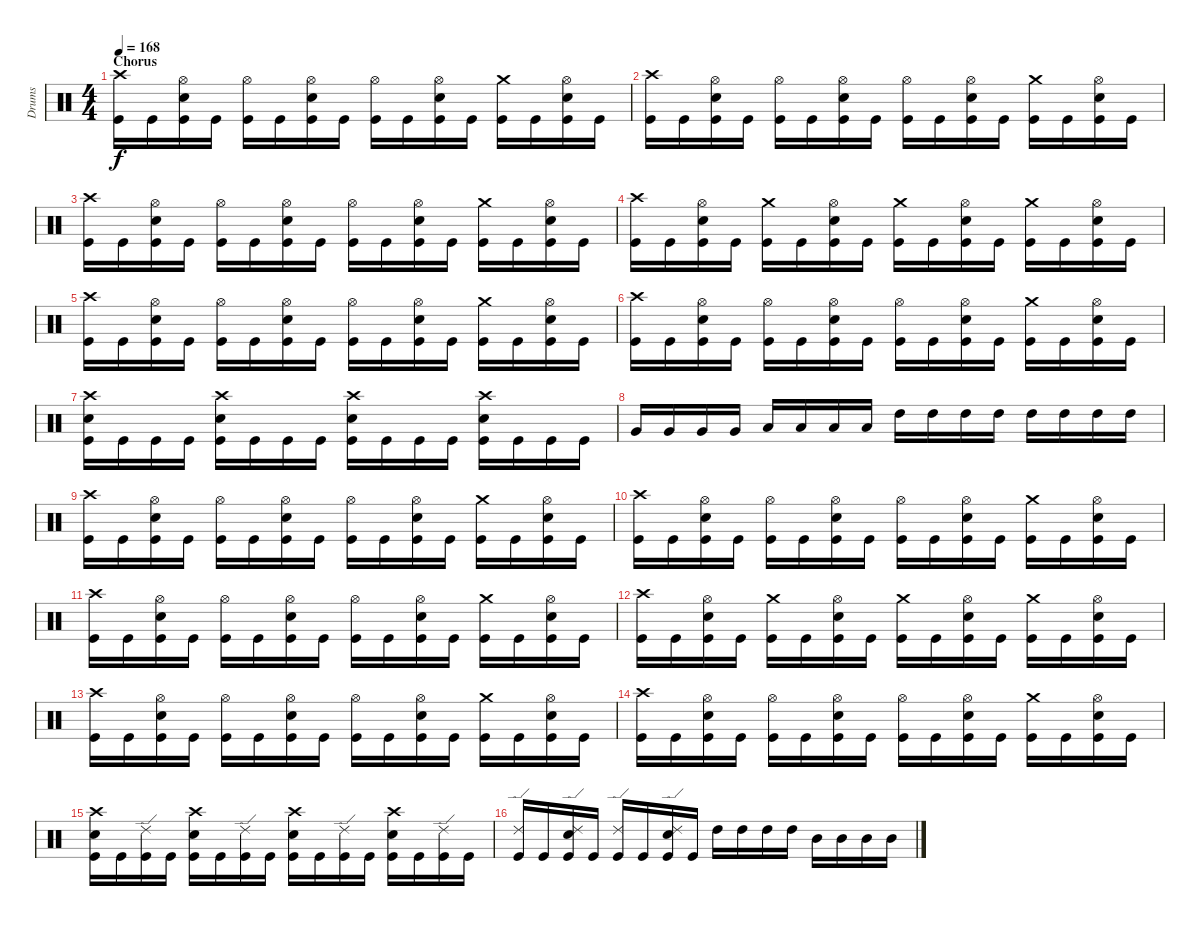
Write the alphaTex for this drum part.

\track ("Drums" "Drums") {instrument percussion}
\staff {score}
\articulation defaults
\ts (4 4)
\section ("" "Chorus")
\tempo 168
\clef neutral
\ks c
("Crash high (hit)" "Kick (hit)").16{dy f} "Kick (hit)".16 ("Hi-Hat (open)" "Electric Snare (hit)" "Kick (hit)").16 "Kick (hit)".16 ("Hi-Hat (open)" "Kick (hit)").16 "Kick (hit)".16 ("Hi-Hat (open)" "Electric Snare (hit)" "Kick (hit)").16 "Kick (hit)".16 ("Hi-Hat (open)" "Kick (hit)").16 "Kick (hit)".16 ("Hi-Hat (open)" "Electric Snare (hit)" "Kick (hit)").16 "Kick (hit)".16 ("Crash medium (hit)" "Kick (hit)").16 "Kick (hit)".16 ("Hi-Hat (open)" "Electric Snare (hit)" "Kick (hit)").16 "Kick (hit)".16 |
("Crash high (hit)" "Kick (hit)").16 "Kick (hit)".16 ("Hi-Hat (open)" "Electric Snare (hit)" "Kick (hit)").16 "Kick (hit)".16 ("Hi-Hat (open)" "Kick (hit)").16 "Kick (hit)".16 ("Hi-Hat (open)" "Electric Snare (hit)" "Kick (hit)").16 "Kick (hit)".16 ("Hi-Hat (open)" "Kick (hit)").16 "Kick (hit)".16 ("Hi-Hat (open)" "Electric Snare (hit)" "Kick (hit)").16 "Kick (hit)".16 ("Crash medium (hit)" "Kick (hit)").16 "Kick (hit)".16 ("Hi-Hat (open)" "Electric Snare (hit)" "Kick (hit)").16 "Kick (hit)".16 |
("Crash high (hit)" "Kick (hit)").16 "Kick (hit)".16 ("Hi-Hat (open)" "Electric Snare (hit)" "Kick (hit)").16 "Kick (hit)".16 ("Hi-Hat (open)" "Kick (hit)").16 "Kick (hit)".16 ("Hi-Hat (open)" "Electric Snare (hit)" "Kick (hit)").16 "Kick (hit)".16 ("Hi-Hat (open)" "Kick (hit)").16 "Kick (hit)".16 ("Hi-Hat (open)" "Electric Snare (hit)" "Kick (hit)").16 "Kick (hit)".16 ("Crash medium (hit)" "Kick (hit)").16 "Kick (hit)".16 ("Hi-Hat (open)" "Electric Snare (hit)" "Kick (hit)").16 "Kick (hit)".16 |
("Crash high (hit)" "Kick (hit)").16 "Kick (hit)".16 ("Hi-Hat (open)" "Electric Snare (hit)" "Kick (hit)").16 "Kick (hit)".16 ("Crash medium (hit)" "Kick (hit)").16 "Kick (hit)".16 ("Hi-Hat (open)" "Electric Snare (hit)" "Kick (hit)").16 "Kick (hit)".16 ("Crash medium (hit)" "Kick (hit)").16 "Kick (hit)".16 ("Hi-Hat (open)" "Electric Snare (hit)" "Kick (hit)").16 "Kick (hit)".16 ("Crash medium (hit)" "Kick (hit)").16 "Kick (hit)".16 ("Hi-Hat (open)" "Electric Snare (hit)" "Kick (hit)").16 "Kick (hit)".16 |
("Crash high (hit)" "Kick (hit)").16 "Kick (hit)".16 ("Hi-Hat (open)" "Electric Snare (hit)" "Kick (hit)").16 "Kick (hit)".16 ("Hi-Hat (open)" "Kick (hit)").16 "Kick (hit)".16 ("Hi-Hat (open)" "Electric Snare (hit)" "Kick (hit)").16 "Kick (hit)".16 ("Hi-Hat (open)" "Kick (hit)").16 "Kick (hit)".16 ("Hi-Hat (open)" "Electric Snare (hit)" "Kick (hit)").16 "Kick (hit)".16 ("Crash medium (hit)" "Kick (hit)").16 "Kick (hit)".16 ("Hi-Hat (open)" "Electric Snare (hit)" "Kick (hit)").16 "Kick (hit)".16 |
("Crash high (hit)" "Kick (hit)").16 "Kick (hit)".16 ("Hi-Hat (open)" "Electric Snare (hit)" "Kick (hit)").16 "Kick (hit)".16 ("Hi-Hat (open)" "Kick (hit)").16 "Kick (hit)".16 ("Hi-Hat (open)" "Electric Snare (hit)" "Kick (hit)").16 "Kick (hit)".16 ("Hi-Hat (open)" "Kick (hit)").16 "Kick (hit)".16 ("Hi-Hat (open)" "Electric Snare (hit)" "Kick (hit)").16 "Kick (hit)".16 ("Crash medium (hit)" "Kick (hit)").16 "Kick (hit)".16 ("Hi-Hat (open)" "Electric Snare (hit)" "Kick (hit)").16 "Kick (hit)".16 |
("Crash high (hit)" "Snare (hit) 2" "Kick (hit)").16 "Kick (hit)".16 "Kick (hit)".16 "Kick (hit)".16 ("Crash high (hit)" "Snare (hit) 2" "Kick (hit)").16 "Kick (hit)".16 "Kick (hit)".16 "Kick (hit)".16 ("Crash high (hit)" "Snare (hit) 2" "Kick (hit)").16 "Kick (hit)".16 "Kick (hit)".16 "Kick (hit)".16 ("Crash high (hit)" "Snare (hit) 2" "Kick (hit)").16 "Kick (hit)".16 "Kick (hit)".16 "Kick (hit)".16 |
"Very Low Tom (hit)".16 "Very Low Tom (hit)".16 "Very Low Tom (hit)".16 "Very Low Tom (hit)".16 "Low Tom (hit)".16 "Low Tom (hit)".16 "Low Tom (hit)".16 "Low Tom (hit)".16 "High Tom (hit)".16 "High Tom (hit)".16 "High Tom (hit)".16 "High Tom (hit)".16 "High Tom (hit)".16 "High Tom (hit)".16 "High Tom (hit)".16 "High Tom (hit)".16 |
("Crash high (hit)" "Kick (hit)").16 "Kick (hit)".16 ("Hi-Hat (open)" "Electric Snare (hit)" "Kick (hit)").16 "Kick (hit)".16 ("Hi-Hat (open)" "Kick (hit)").16 "Kick (hit)".16 ("Hi-Hat (open)" "Electric Snare (hit)" "Kick (hit)").16 "Kick (hit)".16 ("Hi-Hat (open)" "Kick (hit)").16 "Kick (hit)".16 ("Hi-Hat (open)" "Electric Snare (hit)" "Kick (hit)").16 "Kick (hit)".16 ("Crash medium (hit)" "Kick (hit)").16 "Kick (hit)".16 ("Hi-Hat (open)" "Electric Snare (hit)" "Kick (hit)").16 "Kick (hit)".16 |
("Crash high (hit)" "Kick (hit)").16 "Kick (hit)".16 ("Hi-Hat (open)" "Electric Snare (hit)" "Kick (hit)").16 "Kick (hit)".16 ("Hi-Hat (open)" "Kick (hit)").16 "Kick (hit)".16 ("Hi-Hat (open)" "Electric Snare (hit)" "Kick (hit)").16 "Kick (hit)".16 ("Hi-Hat (open)" "Kick (hit)").16 "Kick (hit)".16 ("Hi-Hat (open)" "Electric Snare (hit)" "Kick (hit)").16 "Kick (hit)".16 ("Crash medium (hit)" "Kick (hit)").16 "Kick (hit)".16 ("Hi-Hat (open)" "Electric Snare (hit)" "Kick (hit)").16 "Kick (hit)".16 |
("Crash high (hit)" "Kick (hit)").16 "Kick (hit)".16 ("Hi-Hat (open)" "Electric Snare (hit)" "Kick (hit)").16 "Kick (hit)".16 ("Hi-Hat (open)" "Kick (hit)").16 "Kick (hit)".16 ("Hi-Hat (open)" "Electric Snare (hit)" "Kick (hit)").16 "Kick (hit)".16 ("Hi-Hat (open)" "Kick (hit)").16 "Kick (hit)".16 ("Hi-Hat (open)" "Electric Snare (hit)" "Kick (hit)").16 "Kick (hit)".16 ("Crash medium (hit)" "Kick (hit)").16 "Kick (hit)".16 ("Hi-Hat (open)" "Electric Snare (hit)" "Kick (hit)").16 "Kick (hit)".16 |
("Crash high (hit)" "Kick (hit)").16 "Kick (hit)".16 ("Hi-Hat (open)" "Electric Snare (hit)" "Kick (hit)").16 "Kick (hit)".16 ("Crash medium (hit)" "Kick (hit)").16 "Kick (hit)".16 ("Hi-Hat (open)" "Electric Snare (hit)" "Kick (hit)").16 "Kick (hit)".16 ("Crash medium (hit)" "Kick (hit)").16 "Kick (hit)".16 ("Hi-Hat (open)" "Electric Snare (hit)" "Kick (hit)").16 "Kick (hit)".16 ("Crash medium (hit)" "Kick (hit)").16 "Kick (hit)".16 ("Hi-Hat (open)" "Electric Snare (hit)" "Kick (hit)").16 "Kick (hit)".16 |
("Crash high (hit)" "Kick (hit)").16 "Kick (hit)".16 ("Hi-Hat (open)" "Electric Snare (hit)" "Kick (hit)").16 "Kick (hit)".16 ("Hi-Hat (open)" "Kick (hit)").16 "Kick (hit)".16 ("Hi-Hat (open)" "Electric Snare (hit)" "Kick (hit)").16 "Kick (hit)".16 ("Hi-Hat (open)" "Kick (hit)").16 "Kick (hit)".16 ("Hi-Hat (open)" "Electric Snare (hit)" "Kick (hit)").16 "Kick (hit)".16 ("Crash medium (hit)" "Kick (hit)").16 "Kick (hit)".16 ("Hi-Hat (open)" "Electric Snare (hit)" "Kick (hit)").16 "Kick (hit)".16 |
("Crash high (hit)" "Kick (hit)").16 "Kick (hit)".16 ("Hi-Hat (open)" "Electric Snare (hit)" "Kick (hit)").16 "Kick (hit)".16 ("Hi-Hat (open)" "Kick (hit)").16 "Kick (hit)".16 ("Hi-Hat (open)" "Electric Snare (hit)" "Kick (hit)").16 "Kick (hit)".16 ("Hi-Hat (open)" "Kick (hit)").16 "Kick (hit)".16 ("Hi-Hat (open)" "Electric Snare (hit)" "Kick (hit)").16 "Kick (hit)".16 ("Crash medium (hit)" "Kick (hit)").16 "Kick (hit)".16 ("Hi-Hat (open)" "Electric Snare (hit)" "Kick (hit)").16 "Kick (hit)".16 |
("Crash high (hit)" "Electric Snare (hit)" "Kick (hit)").16 "Kick (hit)".16 ("Ride (edge) 2" "Kick (hit)").16 "Kick (hit)".16 ("Crash high (hit)" "Electric Snare (hit)" "Kick (hit)").16 "Kick (hit)".16 ("Ride (edge) 2" "Kick (hit)").16 "Kick (hit)".16 ("Crash high (hit)" "Electric Snare (hit)" "Kick (hit)").16 "Kick (hit)".16 ("Ride (edge) 2" "Kick (hit)").16 "Kick (hit)".16 ("Crash high (hit)" "Electric Snare (hit)" "Kick (hit)").16 "Kick (hit)".16 ("Ride (edge) 2" "Kick (hit)").16 "Kick (hit)".16 |
("Ride (edge) 2" "Kick (hit)").16 "Kick (hit)".16 ("Ride (edge) 2" "Electric Snare (hit)" "Kick (hit)").16 "Kick (hit)".16 ("Ride (edge) 2" "Kick (hit)").16 "Kick (hit)".16 ("Ride (edge) 2" "Electric Snare (hit)" "Kick (hit)").16 "Kick (hit)".16 "High Tom (hit)".16 "High Tom (hit)".16 "High Tom (hit)".16 "High Tom (hit)".16 "Mid Tom (hit)".16 "Mid Tom (hit)".16 "Mid Tom (hit)".16 "Mid Tom (hit)".16
